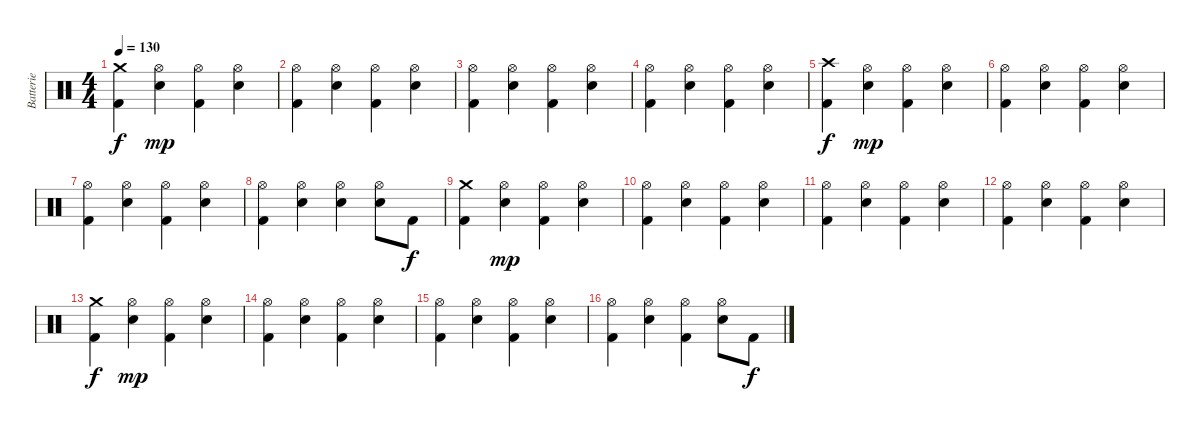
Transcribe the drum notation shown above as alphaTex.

\track ("Batterie" "Batterie") {instrument percussion}
\staff {score}
\articulation defaults
\ts (4 4)
\tempo 130
\clef neutral
\ks c
("Crash medium (hit)" "Kick (hit) 2").4{dy f} ("Hi-Hat (open)" "Electric Snare (hit)").4{dy mp} ("Hi-Hat (open)" "Kick (hit) 2").4 ("Hi-Hat (open)" "Electric Snare (hit)").4 |
("Hi-Hat (open)" "Kick (hit) 2").4 ("Hi-Hat (open)" "Electric Snare (hit)").4 ("Hi-Hat (open)" "Kick (hit) 2").4 ("Hi-Hat (open)" "Electric Snare (hit)").4 |
("Hi-Hat (open)" "Kick (hit) 2").4 ("Hi-Hat (open)" "Electric Snare (hit)").4 ("Hi-Hat (open)" "Kick (hit) 2").4 ("Hi-Hat (open)" "Electric Snare (hit)").4 |
("Hi-Hat (open)" "Kick (hit) 2").4 ("Hi-Hat (open)" "Electric Snare (hit)").4 ("Hi-Hat (open)" "Kick (hit) 2").4 ("Hi-Hat (open)" "Electric Snare (hit)").4 |
("Crash high (hit)" "Kick (hit) 2").4{dy f} ("Hi-Hat (open)" "Electric Snare (hit)").4{dy mp} ("Hi-Hat (open)" "Kick (hit) 2").4 ("Hi-Hat (open)" "Electric Snare (hit)").4 |
("Hi-Hat (open)" "Kick (hit) 2").4 ("Hi-Hat (open)" "Electric Snare (hit)").4 ("Hi-Hat (open)" "Kick (hit) 2").4 ("Hi-Hat (open)" "Electric Snare (hit)").4 |
("Hi-Hat (open)" "Kick (hit) 2").4 ("Hi-Hat (open)" "Electric Snare (hit)").4 ("Hi-Hat (open)" "Kick (hit) 2").4 ("Hi-Hat (open)" "Electric Snare (hit)").4 |
("Hi-Hat (open)" "Kick (hit) 2").4 ("Hi-Hat (open)" "Electric Snare (hit)").4 ("Hi-Hat (open)" "Electric Snare (hit)").4 ("Hi-Hat (open)" "Electric Snare (hit)").8 "Kick (hit) 2".8{dy f} |
("Crash medium (hit)" "Kick (hit) 2").4 ("Hi-Hat (open)" "Electric Snare (hit)").4{dy mp} ("Hi-Hat (open)" "Kick (hit) 2").4 ("Hi-Hat (open)" "Electric Snare (hit)").4 |
("Hi-Hat (open)" "Kick (hit) 2").4 ("Hi-Hat (open)" "Electric Snare (hit)").4 ("Hi-Hat (open)" "Kick (hit) 2").4 ("Hi-Hat (open)" "Electric Snare (hit)").4 |
("Hi-Hat (open)" "Kick (hit) 2").4 ("Hi-Hat (open)" "Electric Snare (hit)").4 ("Hi-Hat (open)" "Kick (hit) 2").4 ("Hi-Hat (open)" "Electric Snare (hit)").4 |
("Hi-Hat (open)" "Kick (hit) 2").4 ("Hi-Hat (open)" "Electric Snare (hit)").4 ("Hi-Hat (open)" "Kick (hit) 2").4 ("Hi-Hat (open)" "Electric Snare (hit)").4 |
("Crash medium (hit)" "Kick (hit) 2").4{dy f} ("Hi-Hat (open)" "Electric Snare (hit)").4{dy mp} ("Hi-Hat (open)" "Kick (hit) 2").4 ("Hi-Hat (open)" "Electric Snare (hit)").4 |
("Hi-Hat (open)" "Kick (hit) 2").4 ("Hi-Hat (open)" "Electric Snare (hit)").4 ("Hi-Hat (open)" "Kick (hit) 2").4 ("Hi-Hat (open)" "Electric Snare (hit)").4 |
("Hi-Hat (open)" "Kick (hit) 2").4 ("Hi-Hat (open)" "Electric Snare (hit)").4 ("Hi-Hat (open)" "Kick (hit) 2").4 ("Hi-Hat (open)" "Electric Snare (hit)").4 |
("Hi-Hat (open)" "Kick (hit) 2").4 ("Hi-Hat (open)" "Electric Snare (hit)").4 ("Hi-Hat (open)" "Kick (hit) 2").4 ("Hi-Hat (open)" "Electric Snare (hit)").8 "Kick (hit) 2".8{dy f}
